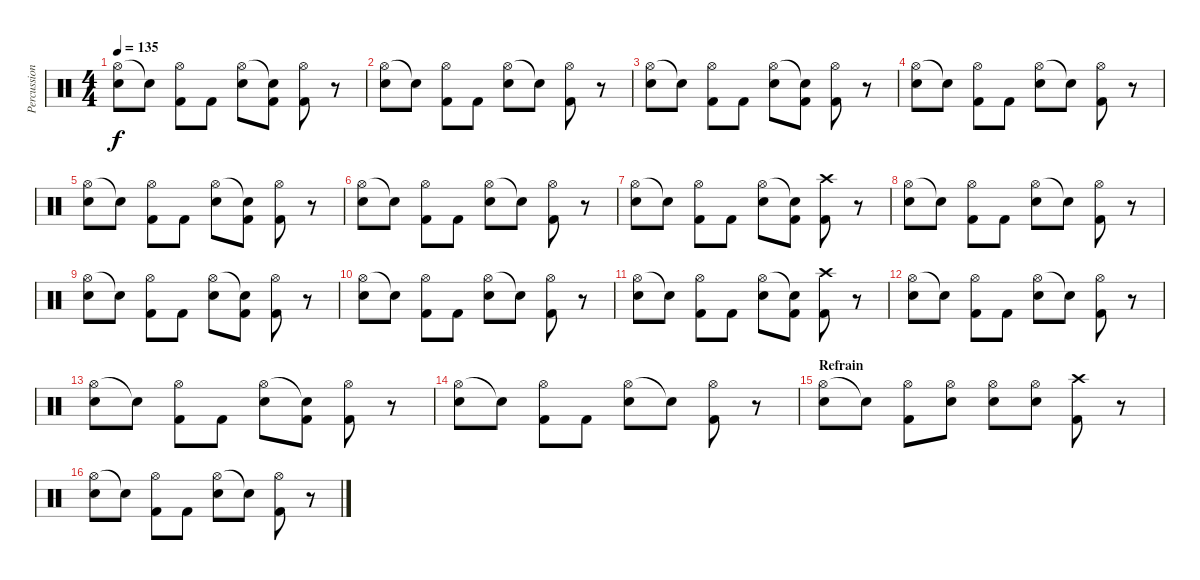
\track ("Percussion" "Percussion") {instrument percussion}
\staff {score}
\articulation defaults
\ts (4 4)
\tempo 135
\clef neutral
\ks c
("Hi-Hat (open)" "Electric Snare (hit)").8{dy f} "Electric Snare (hit)"{t}.8 ("Hi-Hat (open)" "Kick (hit) 2").8 "Kick (hit) 2".8 ("Hi-Hat (open)" "Electric Snare (hit)").8 ("Electric Snare (hit)"{t} "Kick (hit) 2").8 ("Hi-Hat (open)" "Kick (hit) 2").8 r.8 |
("Hi-Hat (open)" "Electric Snare (hit)").8 "Electric Snare (hit)"{t}.8 ("Hi-Hat (open)" "Kick (hit) 2").8 "Kick (hit) 2".8 ("Hi-Hat (open)" "Electric Snare (hit)").8 "Electric Snare (hit)"{t}.8 ("Hi-Hat (open)" "Kick (hit) 2").8 r.8 |
("Hi-Hat (open)" "Electric Snare (hit)").8 "Electric Snare (hit)"{t}.8 ("Hi-Hat (open)" "Kick (hit) 2").8 "Kick (hit) 2".8 ("Hi-Hat (open)" "Electric Snare (hit)").8 ("Electric Snare (hit)"{t} "Kick (hit) 2").8 ("Hi-Hat (open)" "Kick (hit) 2").8 r.8 |
("Hi-Hat (open)" "Electric Snare (hit)").8 "Electric Snare (hit)"{t}.8 ("Hi-Hat (open)" "Kick (hit) 2").8 "Kick (hit) 2".8 ("Hi-Hat (open)" "Electric Snare (hit)").8 "Electric Snare (hit)"{t}.8 ("Hi-Hat (open)" "Kick (hit) 2").8 r.8 |
("Hi-Hat (open)" "Electric Snare (hit)").8 "Electric Snare (hit)"{t}.8 ("Hi-Hat (open)" "Kick (hit) 2").8 "Kick (hit) 2".8 ("Hi-Hat (open)" "Electric Snare (hit)").8 ("Electric Snare (hit)"{t} "Kick (hit) 2").8 ("Hi-Hat (open)" "Kick (hit) 2").8 r.8 |
("Hi-Hat (open)" "Electric Snare (hit)").8 "Electric Snare (hit)"{t}.8 ("Hi-Hat (open)" "Kick (hit) 2").8 "Kick (hit) 2".8 ("Hi-Hat (open)" "Electric Snare (hit)").8 "Electric Snare (hit)"{t}.8 ("Hi-Hat (open)" "Kick (hit) 2").8 r.8 |
("Hi-Hat (open)" "Electric Snare (hit)").8 "Electric Snare (hit)"{t}.8 ("Hi-Hat (open)" "Kick (hit) 2").8 "Kick (hit) 2".8 ("Hi-Hat (open)" "Electric Snare (hit)").8 ("Electric Snare (hit)"{t} "Kick (hit) 2").8 ("Crash high (hit)" "Kick (hit) 2").8 r.8 |
("Hi-Hat (open)" "Electric Snare (hit)").8 "Electric Snare (hit)"{t}.8 ("Hi-Hat (open)" "Kick (hit) 2").8 "Kick (hit) 2".8 ("Hi-Hat (open)" "Electric Snare (hit)").8 "Electric Snare (hit)"{t}.8 ("Hi-Hat (open)" "Kick (hit) 2").8 r.8 |
("Hi-Hat (open)" "Electric Snare (hit)").8 "Electric Snare (hit)"{t}.8 ("Hi-Hat (open)" "Kick (hit) 2").8 "Kick (hit) 2".8 ("Hi-Hat (open)" "Electric Snare (hit)").8 ("Electric Snare (hit)"{t} "Kick (hit) 2").8 ("Hi-Hat (open)" "Kick (hit) 2").8 r.8 |
("Hi-Hat (open)" "Electric Snare (hit)").8 "Electric Snare (hit)"{t}.8 ("Hi-Hat (open)" "Kick (hit) 2").8 "Kick (hit) 2".8 ("Hi-Hat (open)" "Electric Snare (hit)").8 "Electric Snare (hit)"{t}.8 ("Hi-Hat (open)" "Kick (hit) 2").8 r.8 |
("Hi-Hat (open)" "Electric Snare (hit)").8 "Electric Snare (hit)"{t}.8 ("Hi-Hat (open)" "Kick (hit) 2").8 "Kick (hit) 2".8 ("Hi-Hat (open)" "Electric Snare (hit)").8 ("Electric Snare (hit)"{t} "Kick (hit) 2").8 ("Crash high (hit)" "Kick (hit) 2").8 r.8 |
("Hi-Hat (open)" "Electric Snare (hit)").8 "Electric Snare (hit)"{t}.8 ("Hi-Hat (open)" "Kick (hit) 2").8 "Kick (hit) 2".8 ("Hi-Hat (open)" "Electric Snare (hit)").8 "Electric Snare (hit)"{t}.8 ("Hi-Hat (open)" "Kick (hit) 2").8 r.8 |
("Hi-Hat (open)" "Electric Snare (hit)").8 "Electric Snare (hit)"{t}.8 ("Hi-Hat (open)" "Kick (hit) 2").8 "Kick (hit) 2".8 ("Hi-Hat (open)" "Electric Snare (hit)").8 ("Electric Snare (hit)"{t} "Kick (hit) 2").8 ("Hi-Hat (open)" "Kick (hit) 2").8 r.8 |
("Hi-Hat (open)" "Electric Snare (hit)").8 "Electric Snare (hit)"{t}.8 ("Hi-Hat (open)" "Kick (hit) 2").8 "Kick (hit) 2".8 ("Hi-Hat (open)" "Electric Snare (hit)").8 "Electric Snare (hit)"{t}.8 ("Hi-Hat (open)" "Kick (hit) 2").8 r.8 |
\section ("" "Refrain")
("Hi-Hat (open)" "Electric Snare (hit)").8 "Electric Snare (hit)"{t}.8 ("Hi-Hat (open)" "Kick (hit) 2").8 ("Hi-Hat (open)" "Electric Snare (hit)").8 ("Hi-Hat (open)" "Electric Snare (hit)").8 ("Hi-Hat (open)" "Electric Snare (hit)").8 ("Crash high (hit)" "Kick (hit) 2").8 r.8 |
("Hi-Hat (open)" "Electric Snare (hit)").8 "Electric Snare (hit)"{t}.8 ("Hi-Hat (open)" "Kick (hit) 2").8 "Kick (hit) 2".8 ("Hi-Hat (open)" "Electric Snare (hit)").8 "Electric Snare (hit)"{t}.8 ("Hi-Hat (open)" "Kick (hit) 2").8 r.8
